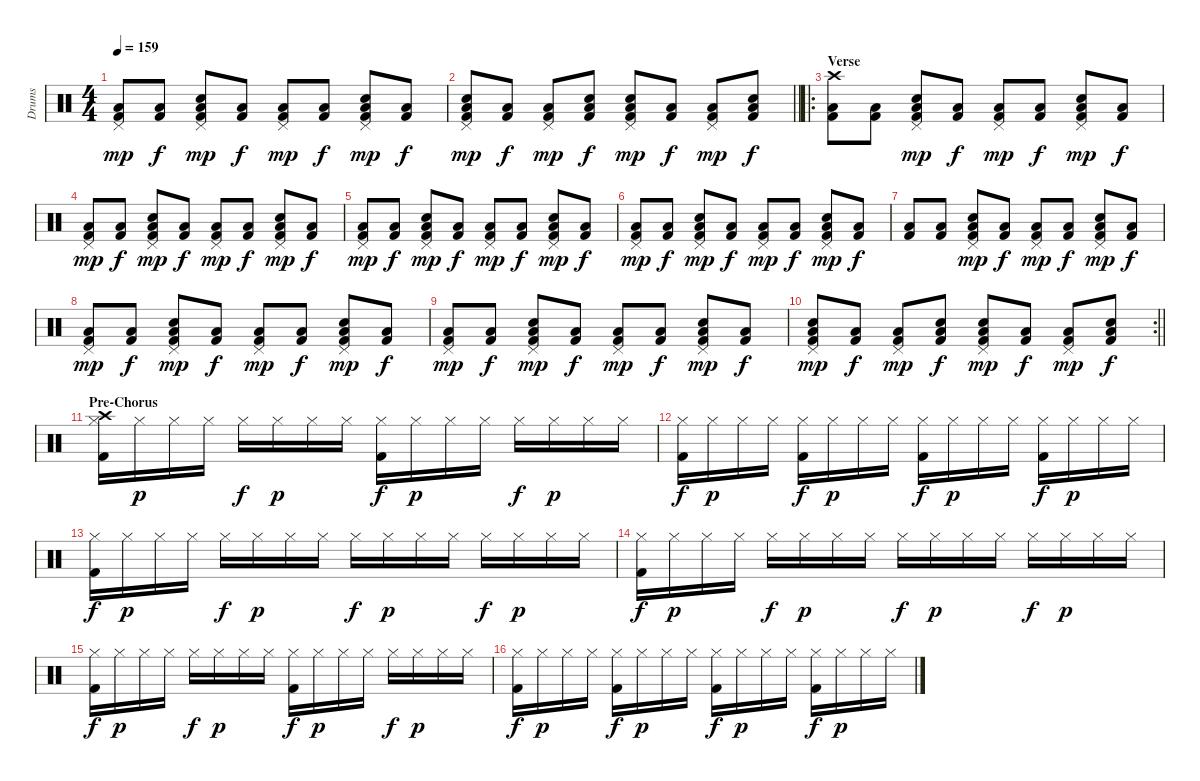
\track ("Drums" "Drums") {instrument percussion}
\staff {score}
\articulation defaults
\ts (4 4)
\tempo 159
\clef neutral
\ks c
("Pedal Hi-Hat (hit)" "Low Floor Tom (hit)" "Kick (hit) 2").8{dy mp} ("Low Floor Tom (hit)" "Kick (hit) 2").8{dy f} ("Pedal Hi-Hat (hit)" "Electric Snare (hit)" "Low Floor Tom (hit)" "Kick (hit) 2").8{dy mp} ("Low Floor Tom (hit)" "Kick (hit) 2").8{dy f} ("Pedal Hi-Hat (hit)" "Low Floor Tom (hit)" "Kick (hit) 2").8{dy mp} ("Low Floor Tom (hit)" "Kick (hit) 2").8{dy f} ("Pedal Hi-Hat (hit)" "Electric Snare (hit)" "Low Floor Tom (hit)" "Kick (hit) 2").8{dy mp} ("Low Floor Tom (hit)" "Kick (hit) 2").8{dy f} |
\barLineRight lightlight
("Pedal Hi-Hat (hit)" "Electric Snare (hit)" "Low Floor Tom (hit)" "Kick (hit) 2").8{dy mp} ("Low Floor Tom (hit)" "Kick (hit) 2").8{dy f} ("Pedal Hi-Hat (hit)" "Low Floor Tom (hit)" "Kick (hit) 2").8{dy mp} ("Electric Snare (hit)" "Low Floor Tom (hit)" "Kick (hit) 2").8{dy f} ("Pedal Hi-Hat (hit)" "Electric Snare (hit)" "Low Floor Tom (hit)" "Kick (hit) 2").8{dy mp} ("Low Floor Tom (hit)" "Kick (hit) 2").8{dy f} ("Pedal Hi-Hat (hit)" "Low Floor Tom (hit)" "Kick (hit) 2").8{dy mp} ("Electric Snare (hit)" "Low Floor Tom (hit)" "Kick (hit) 2").8{dy f} |
\ro
\section ("" "Verse")
("Crash high (hit)" "Low Floor Tom (hit)" "Kick (hit) 2").8 ("Low Floor Tom (hit)" "Kick (hit) 2").8 ("Pedal Hi-Hat (hit)" "Electric Snare (hit)" "Low Floor Tom (hit)" "Kick (hit) 2").8{dy mp} ("Low Floor Tom (hit)" "Kick (hit) 2").8{dy f} ("Pedal Hi-Hat (hit)" "Low Floor Tom (hit)" "Kick (hit) 2").8{dy mp} ("Low Floor Tom (hit)" "Kick (hit) 2").8{dy f} ("Pedal Hi-Hat (hit)" "Electric Snare (hit)" "Low Floor Tom (hit)" "Kick (hit) 2").8{dy mp} ("Low Floor Tom (hit)" "Kick (hit) 2").8{dy f} |
("Pedal Hi-Hat (hit)" "Low Floor Tom (hit)" "Kick (hit) 2").8{dy mp} ("Low Floor Tom (hit)" "Kick (hit) 2").8{dy f} ("Pedal Hi-Hat (hit)" "Electric Snare (hit)" "Low Floor Tom (hit)" "Kick (hit) 2").8{dy mp} ("Low Floor Tom (hit)" "Kick (hit) 2").8{dy f} ("Pedal Hi-Hat (hit)" "Low Floor Tom (hit)" "Kick (hit) 2").8{dy mp} ("Low Floor Tom (hit)" "Kick (hit) 2").8{dy f} ("Pedal Hi-Hat (hit)" "Electric Snare (hit)" "Low Floor Tom (hit)" "Kick (hit) 2").8{dy mp} ("Low Floor Tom (hit)" "Kick (hit) 2").8{dy f} |
("Pedal Hi-Hat (hit)" "Low Floor Tom (hit)" "Kick (hit) 2").8{dy mp} ("Low Floor Tom (hit)" "Kick (hit) 2").8{dy f} ("Pedal Hi-Hat (hit)" "Electric Snare (hit)" "Low Floor Tom (hit)" "Kick (hit) 2").8{dy mp} ("Low Floor Tom (hit)" "Kick (hit) 2").8{dy f} ("Pedal Hi-Hat (hit)" "Low Floor Tom (hit)" "Kick (hit) 2").8{dy mp} ("Low Floor Tom (hit)" "Kick (hit) 2").8{dy f} ("Pedal Hi-Hat (hit)" "Electric Snare (hit)" "Low Floor Tom (hit)" "Kick (hit) 2").8{dy mp} ("Low Floor Tom (hit)" "Kick (hit) 2").8{dy f} |
("Pedal Hi-Hat (hit)" "Low Floor Tom (hit)" "Kick (hit) 2").8{dy mp} ("Low Floor Tom (hit)" "Kick (hit) 2").8{dy f} ("Pedal Hi-Hat (hit)" "Electric Snare (hit)" "Low Floor Tom (hit)" "Kick (hit) 2").8{dy mp} ("Low Floor Tom (hit)" "Kick (hit) 2").8{dy f} ("Pedal Hi-Hat (hit)" "Low Floor Tom (hit)" "Kick (hit) 2").8{dy mp} ("Low Floor Tom (hit)" "Kick (hit) 2").8{dy f} ("Pedal Hi-Hat (hit)" "Electric Snare (hit)" "Low Floor Tom (hit)" "Kick (hit) 2").8{dy mp} ("Low Floor Tom (hit)" "Kick (hit) 2").8{dy f} |
("Low Floor Tom (hit)" "Kick (hit) 2").8 ("Low Floor Tom (hit)" "Kick (hit) 2").8 ("Pedal Hi-Hat (hit)" "Electric Snare (hit)" "Low Floor Tom (hit)" "Kick (hit) 2").8{dy mp} ("Low Floor Tom (hit)" "Kick (hit) 2").8{dy f} ("Pedal Hi-Hat (hit)" "Low Floor Tom (hit)" "Kick (hit) 2").8{dy mp} ("Low Floor Tom (hit)" "Kick (hit) 2").8{dy f} ("Pedal Hi-Hat (hit)" "Electric Snare (hit)" "Low Floor Tom (hit)" "Kick (hit) 2").8{dy mp} ("Low Floor Tom (hit)" "Kick (hit) 2").8{dy f} |
("Pedal Hi-Hat (hit)" "Low Floor Tom (hit)" "Kick (hit) 2").8{dy mp} ("Low Floor Tom (hit)" "Kick (hit) 2").8{dy f} ("Pedal Hi-Hat (hit)" "Electric Snare (hit)" "Low Floor Tom (hit)" "Kick (hit) 2").8{dy mp} ("Low Floor Tom (hit)" "Kick (hit) 2").8{dy f} ("Pedal Hi-Hat (hit)" "Low Floor Tom (hit)" "Kick (hit) 2").8{dy mp} ("Low Floor Tom (hit)" "Kick (hit) 2").8{dy f} ("Pedal Hi-Hat (hit)" "Electric Snare (hit)" "Low Floor Tom (hit)" "Kick (hit) 2").8{dy mp} ("Low Floor Tom (hit)" "Kick (hit) 2").8{dy f} |
("Pedal Hi-Hat (hit)" "Low Floor Tom (hit)" "Kick (hit) 2").8{dy mp} ("Low Floor Tom (hit)" "Kick (hit) 2").8{dy f} ("Pedal Hi-Hat (hit)" "Electric Snare (hit)" "Low Floor Tom (hit)" "Kick (hit) 2").8{dy mp} ("Low Floor Tom (hit)" "Kick (hit) 2").8{dy f} ("Pedal Hi-Hat (hit)" "Low Floor Tom (hit)" "Kick (hit) 2").8{dy mp} ("Low Floor Tom (hit)" "Kick (hit) 2").8{dy f} ("Pedal Hi-Hat (hit)" "Electric Snare (hit)" "Low Floor Tom (hit)" "Kick (hit) 2").8{dy mp} ("Low Floor Tom (hit)" "Kick (hit) 2").8{dy f} |
\rc 2
\barLineRight lightlight
("Pedal Hi-Hat (hit)" "Electric Snare (hit)" "Low Floor Tom (hit)" "Kick (hit) 2").8{dy mp} ("Low Floor Tom (hit)" "Kick (hit) 2").8{dy f} ("Pedal Hi-Hat (hit)" "Low Floor Tom (hit)" "Kick (hit) 2").8{dy mp} ("Electric Snare (hit)" "Low Floor Tom (hit)" "Kick (hit) 2").8{dy f} ("Pedal Hi-Hat (hit)" "Electric Snare (hit)" "Low Floor Tom (hit)" "Kick (hit) 2").8{dy mp} ("Low Floor Tom (hit)" "Kick (hit) 2").8{dy f} ("Pedal Hi-Hat (hit)" "Low Floor Tom (hit)" "Kick (hit) 2").8{dy mp} ("Electric Snare (hit)" "Low Floor Tom (hit)" "Kick (hit) 2").8{dy f} |
\section ("" "Pre-Chorus")
("Hi-Hat (closed)" "Crash high (hit)" "Kick (hit) 2").16 "Hi-Hat (closed)".16{dy p} "Hi-Hat (closed)".16 "Hi-Hat (closed)".16 "Hi-Hat (closed)".16{dy f} "Hi-Hat (closed)".16{dy p} "Hi-Hat (closed)".16 "Hi-Hat (closed)".16 ("Hi-Hat (closed)" "Kick (hit) 2").16{dy f} "Hi-Hat (closed)".16{dy p} "Hi-Hat (closed)".16 "Hi-Hat (closed)".16 "Hi-Hat (closed)".16{dy f} "Hi-Hat (closed)".16{dy p} "Hi-Hat (closed)".16 "Hi-Hat (closed)".16 |
("Hi-Hat (closed)" "Kick (hit) 2").16{dy f} "Hi-Hat (closed)".16{dy p} "Hi-Hat (closed)".16 "Hi-Hat (closed)".16 ("Hi-Hat (closed)" "Kick (hit) 2").16{dy f} "Hi-Hat (closed)".16{dy p} "Hi-Hat (closed)".16 "Hi-Hat (closed)".16 ("Hi-Hat (closed)" "Kick (hit) 2").16{dy f} "Hi-Hat (closed)".16{dy p} "Hi-Hat (closed)".16 "Hi-Hat (closed)".16 ("Hi-Hat (closed)" "Kick (hit) 2").16{dy f} "Hi-Hat (closed)".16{dy p} "Hi-Hat (closed)".16 "Hi-Hat (closed)".16 |
("Hi-Hat (closed)" "Kick (hit) 2").16{dy f} "Hi-Hat (closed)".16{dy p} "Hi-Hat (closed)".16 "Hi-Hat (closed)".16 "Hi-Hat (closed)".16{dy f} "Hi-Hat (closed)".16{dy p} "Hi-Hat (closed)".16 "Hi-Hat (closed)".16 "Hi-Hat (closed)".16{dy f} "Hi-Hat (closed)".16{dy p} "Hi-Hat (closed)".16 "Hi-Hat (closed)".16 "Hi-Hat (closed)".16{dy f} "Hi-Hat (closed)".16{dy p} "Hi-Hat (closed)".16 "Hi-Hat (closed)".16 |
("Hi-Hat (closed)" "Kick (hit) 2").16{dy f} "Hi-Hat (closed)".16{dy p} "Hi-Hat (closed)".16 "Hi-Hat (closed)".16 "Hi-Hat (closed)".16{dy f} "Hi-Hat (closed)".16{dy p} "Hi-Hat (closed)".16 "Hi-Hat (closed)".16 "Hi-Hat (closed)".16{dy f} "Hi-Hat (closed)".16{dy p} "Hi-Hat (closed)".16 "Hi-Hat (closed)".16 "Hi-Hat (closed)".16{dy f} "Hi-Hat (closed)".16{dy p} "Hi-Hat (closed)".16 "Hi-Hat (closed)".16 |
("Hi-Hat (closed)" "Kick (hit) 2").16{dy f} "Hi-Hat (closed)".16{dy p} "Hi-Hat (closed)".16 "Hi-Hat (closed)".16 "Hi-Hat (closed)".16{dy f} "Hi-Hat (closed)".16{dy p} "Hi-Hat (closed)".16 "Hi-Hat (closed)".16 ("Hi-Hat (closed)" "Kick (hit) 2").16{dy f} "Hi-Hat (closed)".16{dy p} "Hi-Hat (closed)".16 "Hi-Hat (closed)".16 "Hi-Hat (closed)".16{dy f} "Hi-Hat (closed)".16{dy p} "Hi-Hat (closed)".16 "Hi-Hat (closed)".16 |
("Hi-Hat (closed)" "Kick (hit) 2").16{dy f} "Hi-Hat (closed)".16{dy p} "Hi-Hat (closed)".16 "Hi-Hat (closed)".16 ("Hi-Hat (closed)" "Kick (hit) 2").16{dy f} "Hi-Hat (closed)".16{dy p} "Hi-Hat (closed)".16 "Hi-Hat (closed)".16 ("Hi-Hat (closed)" "Kick (hit) 2").16{dy f} "Hi-Hat (closed)".16{dy p} "Hi-Hat (closed)".16 "Hi-Hat (closed)".16 ("Hi-Hat (closed)" "Kick (hit) 2").16{dy f} "Hi-Hat (closed)".16{dy p} "Hi-Hat (closed)".16 "Hi-Hat (closed)".16
